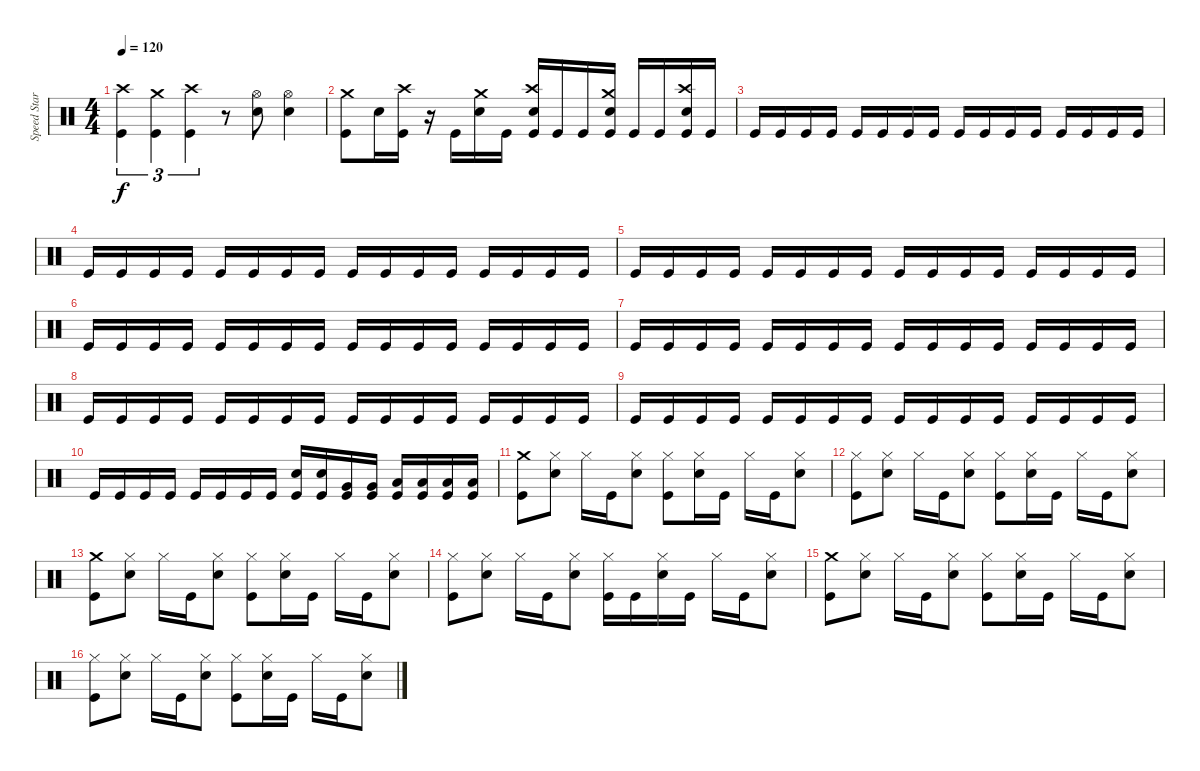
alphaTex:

\track ("Speed Star" "Speed Star") {instrument percussion}
\staff {score}
\articulation defaults
\ts (4 4)
\tempo 120
\clef neutral
\ks c
("Kick (hit)" "Crash high (hit)").4{tu (3 2) dy f} ("Kick (hit)" "Crash medium (hit)").4{tu (3 2)} ("Kick (hit)" "Crash high (hit)").4{tu (3 2)} r.8 ("Snare (hit) 2" "Hi-Hat (open)").8 ("Snare (hit) 2" "Hi-Hat (open)").4 |
("Kick (hit)" "Crash medium (hit)").8 "Snare (hit) 2".16 ("Kick (hit)" "Crash high (hit)").16 r.16 "Kick (hit)".16 ("Snare (hit) 2" "Crash medium (hit)").16 "Kick (hit)".16 ("Kick (hit)" "Snare (hit) 2" "Crash high (hit)").16 "Kick (hit)".16 "Kick (hit)".16 ("Kick (hit)" "Snare (hit) 2" "Crash medium (hit)").16 "Kick (hit)".16 "Kick (hit)".16 ("Kick (hit)" "Snare (hit) 2" "Crash high (hit)").16 "Kick (hit)".16 |
"Kick (hit)".16 "Kick (hit)".16 "Kick (hit)".16 "Kick (hit)".16 "Kick (hit)".16 "Kick (hit)".16 "Kick (hit)".16 "Kick (hit)".16 "Kick (hit)".16 "Kick (hit)".16 "Kick (hit)".16 "Kick (hit)".16 "Kick (hit)".16 "Kick (hit)".16 "Kick (hit)".16 "Kick (hit)".16 |
"Kick (hit)".16 "Kick (hit)".16 "Kick (hit)".16 "Kick (hit)".16 "Kick (hit)".16 "Kick (hit)".16 "Kick (hit)".16 "Kick (hit)".16 "Kick (hit)".16 "Kick (hit)".16 "Kick (hit)".16 "Kick (hit)".16 "Kick (hit)".16 "Kick (hit)".16 "Kick (hit)".16 "Kick (hit)".16 |
"Kick (hit)".16 "Kick (hit)".16 "Kick (hit)".16 "Kick (hit)".16 "Kick (hit)".16 "Kick (hit)".16 "Kick (hit)".16 "Kick (hit)".16 "Kick (hit)".16 "Kick (hit)".16 "Kick (hit)".16 "Kick (hit)".16 "Kick (hit)".16 "Kick (hit)".16 "Kick (hit)".16 "Kick (hit)".16 |
"Kick (hit)".16 "Kick (hit)".16 "Kick (hit)".16 "Kick (hit)".16 "Kick (hit)".16 "Kick (hit)".16 "Kick (hit)".16 "Kick (hit)".16 "Kick (hit)".16 "Kick (hit)".16 "Kick (hit)".16 "Kick (hit)".16 "Kick (hit)".16 "Kick (hit)".16 "Kick (hit)".16 "Kick (hit)".16 |
"Kick (hit)".16 "Kick (hit)".16 "Kick (hit)".16 "Kick (hit)".16 "Kick (hit)".16 "Kick (hit)".16 "Kick (hit)".16 "Kick (hit)".16 "Kick (hit)".16 "Kick (hit)".16 "Kick (hit)".16 "Kick (hit)".16 "Kick (hit)".16 "Kick (hit)".16 "Kick (hit)".16 "Kick (hit)".16 |
"Kick (hit)".16 "Kick (hit)".16 "Kick (hit)".16 "Kick (hit)".16 "Kick (hit)".16 "Kick (hit)".16 "Kick (hit)".16 "Kick (hit)".16 "Kick (hit)".16 "Kick (hit)".16 "Kick (hit)".16 "Kick (hit)".16 "Kick (hit)".16 "Kick (hit)".16 "Kick (hit)".16 "Kick (hit)".16 |
"Kick (hit)".16 "Kick (hit)".16 "Kick (hit)".16 "Kick (hit)".16 "Kick (hit)".16 "Kick (hit)".16 "Kick (hit)".16 "Kick (hit)".16 "Kick (hit)".16 "Kick (hit)".16 "Kick (hit)".16 "Kick (hit)".16 "Kick (hit)".16 "Kick (hit)".16 "Kick (hit)".16 "Kick (hit)".16 |
"Kick (hit)".16 "Kick (hit)".16 "Kick (hit)".16 "Kick (hit)".16 "Kick (hit)".16 "Kick (hit)".16 "Kick (hit)".16 "Kick (hit)".16 ("Kick (hit)" "Snare (hit) 2").16 ("Kick (hit)" "Snare (hit) 2").16 ("Kick (hit)" "Very Low Tom (hit)").16 ("Kick (hit)" "Very Low Tom (hit)").16 ("Kick (hit)" "Low Tom (hit)").16 ("Kick (hit)" "Low Tom (hit)").16 ("Kick (hit)" "Low Floor Tom (hit)").16 ("Kick (hit)" "Low Floor Tom (hit)").16 |
("Kick (hit)" "Crash medium (hit)").8 ("Snare (hit) 2" "Hi-Hat (closed)").8 "Hi-Hat (closed)".16 "Kick (hit)".16 ("Snare (hit) 2" "Hi-Hat (closed)").8 ("Kick (hit)" "Hi-Hat (closed)").8 ("Snare (hit) 2" "Hi-Hat (closed)").16 "Kick (hit)".16 "Hi-Hat (closed)".16 "Kick (hit)".16 ("Snare (hit) 2" "Hi-Hat (closed)").8 |
("Kick (hit)" "Hi-Hat (closed)").8 ("Snare (hit) 2" "Hi-Hat (closed)").8 "Hi-Hat (closed)".16 "Kick (hit)".16 ("Snare (hit) 2" "Hi-Hat (closed)").8 ("Kick (hit)" "Hi-Hat (closed)").8 ("Snare (hit) 2" "Hi-Hat (closed)").16 "Kick (hit)".16 "Hi-Hat (closed)".16 "Kick (hit)".16 ("Snare (hit) 2" "Hi-Hat (closed)").8 |
("Kick (hit)" "Crash medium (hit)").8 ("Snare (hit) 2" "Hi-Hat (closed)").8 "Hi-Hat (closed)".16 "Kick (hit)".16 ("Snare (hit) 2" "Hi-Hat (closed)").8 ("Kick (hit)" "Hi-Hat (closed)").8 ("Snare (hit) 2" "Hi-Hat (closed)").16 "Kick (hit)".16 "Hi-Hat (closed)".16 "Kick (hit)".16 ("Snare (hit) 2" "Hi-Hat (closed)").8 |
("Kick (hit)" "Hi-Hat (closed)").8 ("Snare (hit) 2" "Hi-Hat (closed)").8 "Hi-Hat (closed)".16 "Kick (hit)".16 ("Snare (hit) 2" "Hi-Hat (closed)").8 ("Kick (hit)" "Hi-Hat (closed)").16 "Kick (hit)".16 ("Snare (hit) 2" "Hi-Hat (closed)").16 "Kick (hit)".16 "Hi-Hat (closed)".16 "Kick (hit)".16 ("Snare (hit) 2" "Hi-Hat (closed)").8 |
("Kick (hit)" "Crash medium (hit)").8 ("Snare (hit) 2" "Hi-Hat (closed)").8 "Hi-Hat (closed)".16 "Kick (hit)".16 ("Snare (hit) 2" "Hi-Hat (closed)").8 ("Kick (hit)" "Hi-Hat (closed)").8 ("Snare (hit) 2" "Hi-Hat (closed)").16 "Kick (hit)".16 "Hi-Hat (closed)".16 "Kick (hit)".16 ("Snare (hit) 2" "Hi-Hat (closed)").8 |
("Kick (hit)" "Hi-Hat (closed)").8 ("Snare (hit) 2" "Hi-Hat (closed)").8 "Hi-Hat (closed)".16 "Kick (hit)".16 ("Snare (hit) 2" "Hi-Hat (closed)").8 ("Kick (hit)" "Hi-Hat (closed)").8 ("Snare (hit) 2" "Hi-Hat (closed)").16 "Kick (hit)".16 "Hi-Hat (closed)".16 "Kick (hit)".16 ("Snare (hit) 2" "Hi-Hat (closed)").8
